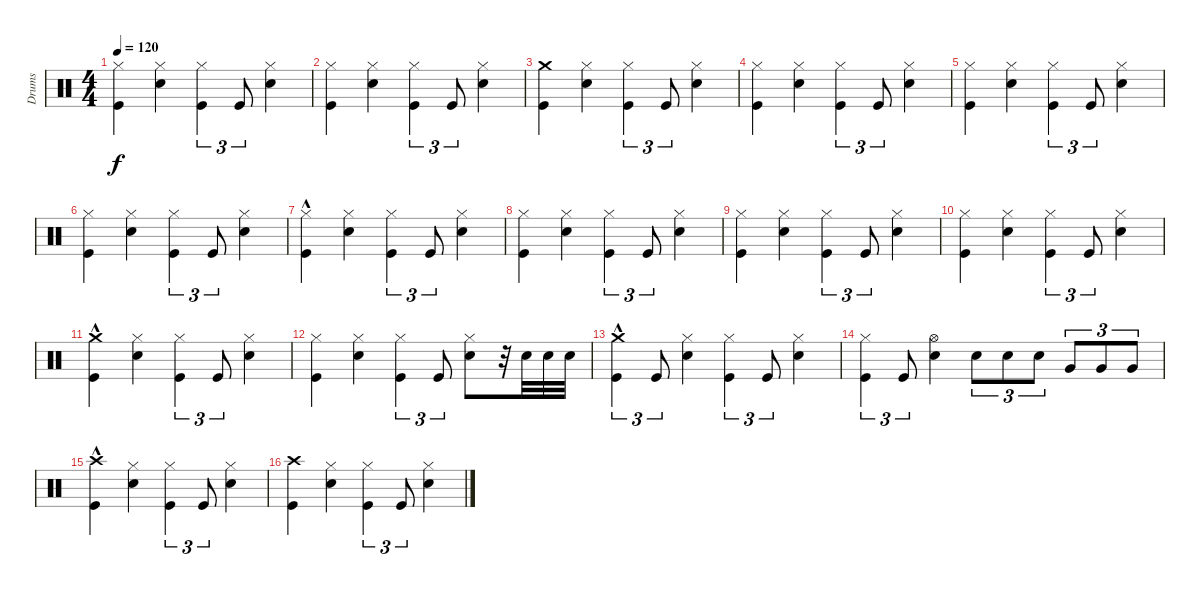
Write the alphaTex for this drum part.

\track ("Drums" "Drums") {instrument percussion}
\staff {score}
\articulation defaults
\ts (4 4)
\tempo 120
\clef neutral
\ks c
("Kick (hit)" "Hi-Hat (closed)").4{dy f} ("Snare (hit) 2" "Hi-Hat (closed)").4 ("Kick (hit)" "Hi-Hat (closed)").4{tu (3 2)} "Kick (hit)".8{tu (3 2)} ("Snare (hit) 2" "Hi-Hat (closed)").4 |
("Kick (hit)" "Hi-Hat (closed)").4 ("Snare (hit) 2" "Hi-Hat (closed)").4 ("Kick (hit)" "Hi-Hat (closed)").4{tu (3 2)} "Kick (hit)".8{tu (3 2)} ("Snare (hit) 2" "Hi-Hat (closed)").4 |
("Kick (hit)" "Crash medium (hit)").4 ("Snare (hit) 2" "Hi-Hat (closed)").4 ("Kick (hit)" "Hi-Hat (closed)").4{tu (3 2)} "Kick (hit)".8{tu (3 2)} ("Snare (hit) 2" "Hi-Hat (closed)").4 |
("Kick (hit)" "Hi-Hat (closed)").4 ("Snare (hit) 2" "Hi-Hat (closed)").4 ("Kick (hit)" "Hi-Hat (closed)").4{tu (3 2)} "Kick (hit)".8{tu (3 2)} ("Snare (hit) 2" "Hi-Hat (closed)").4 |
("Kick (hit)" "Hi-Hat (closed)").4 ("Snare (hit) 2" "Hi-Hat (closed)").4 ("Kick (hit)" "Hi-Hat (closed)").4{tu (3 2)} "Kick (hit)".8{tu (3 2)} ("Snare (hit) 2" "Hi-Hat (closed)").4 |
("Kick (hit)" "Hi-Hat (closed)").4 ("Snare (hit) 2" "Hi-Hat (closed)").4 ("Kick (hit)" "Hi-Hat (closed)").4{tu (3 2)} "Kick (hit)".8{tu (3 2)} ("Snare (hit) 2" "Hi-Hat (closed)").4 |
("Kick (hit)"{hac} "Hi-Hat (closed)").4 ("Snare (hit) 2" "Hi-Hat (closed)").4 ("Kick (hit)" "Hi-Hat (closed)").4{tu (3 2)} "Kick (hit)".8{tu (3 2)} ("Snare (hit) 2" "Hi-Hat (closed)").4 |
("Kick (hit)" "Hi-Hat (closed)").4 ("Snare (hit) 2" "Hi-Hat (closed)").4 ("Kick (hit)" "Hi-Hat (closed)").4{tu (3 2)} "Kick (hit)".8{tu (3 2)} ("Snare (hit) 2" "Hi-Hat (closed)").4 |
("Kick (hit)" "Hi-Hat (closed)").4 ("Snare (hit) 2" "Hi-Hat (closed)").4 ("Kick (hit)" "Hi-Hat (closed)").4{tu (3 2)} "Kick (hit)".8{tu (3 2)} ("Snare (hit) 2" "Hi-Hat (closed)").4 |
("Kick (hit)" "Hi-Hat (closed)").4 ("Snare (hit) 2" "Hi-Hat (closed)").4 ("Kick (hit)" "Hi-Hat (closed)").4{tu (3 2)} "Kick (hit)".8{tu (3 2)} ("Snare (hit) 2" "Hi-Hat (closed)").4 |
("Kick (hit)"{hac} "Crash medium (hit)").4 ("Snare (hit) 2" "Hi-Hat (closed)").4 ("Kick (hit)" "Hi-Hat (closed)").4{tu (3 2)} "Kick (hit)".8{tu (3 2)} ("Snare (hit) 2" "Hi-Hat (closed)").4 |
("Kick (hit)" "Hi-Hat (closed)").4 ("Snare (hit) 2" "Hi-Hat (closed)").4 ("Kick (hit)" "Hi-Hat (closed)").4{tu (3 2)} "Kick (hit)".8{tu (3 2)} ("Snare (hit) 2" "Hi-Hat (closed)").8 r.32 "Snare (hit) 2".32 "Snare (hit) 2".32 "Snare (hit) 2".32 |
("Kick (hit)"{hac} "Crash medium (hit)").4{tu (3 2)} "Kick (hit)".8{tu (3 2)} ("Snare (hit) 2" "Hi-Hat (closed)").4 ("Kick (hit)" "Hi-Hat (closed)").4{tu (3 2)} "Kick (hit)".8{tu (3 2)} ("Snare (hit) 2" "Hi-Hat (closed)").4 |
("Kick (hit)" "Hi-Hat (closed)").4{tu (3 2)} "Kick (hit)".8{tu (3 2)} ("Snare (hit) 2" "Hi-Hat (open)").4 "Snare (hit) 2".8{tu (3 2)} "Snare (hit) 2".8{tu (3 2)} "Snare (hit) 2".8{tu (3 2)} "Very Low Tom (hit)".8{tu (3 2)} "Very Low Tom (hit)".8{tu (3 2)} "Very Low Tom (hit)".8{tu (3 2)} |
("Kick (hit)"{hac} "Crash high (hit)").4 ("Snare (hit) 2" "Hi-Hat (closed)").4 ("Kick (hit)" "Hi-Hat (closed)").4{tu (3 2)} "Kick (hit)".8{tu (3 2)} ("Snare (hit) 2" "Hi-Hat (closed)").4 |
("Kick (hit)" "Crash high (hit)").4 ("Snare (hit) 2" "Hi-Hat (closed)").4 ("Kick (hit)" "Hi-Hat (closed)").4{tu (3 2)} "Kick (hit)".8{tu (3 2)} ("Snare (hit) 2" "Hi-Hat (closed)").4
